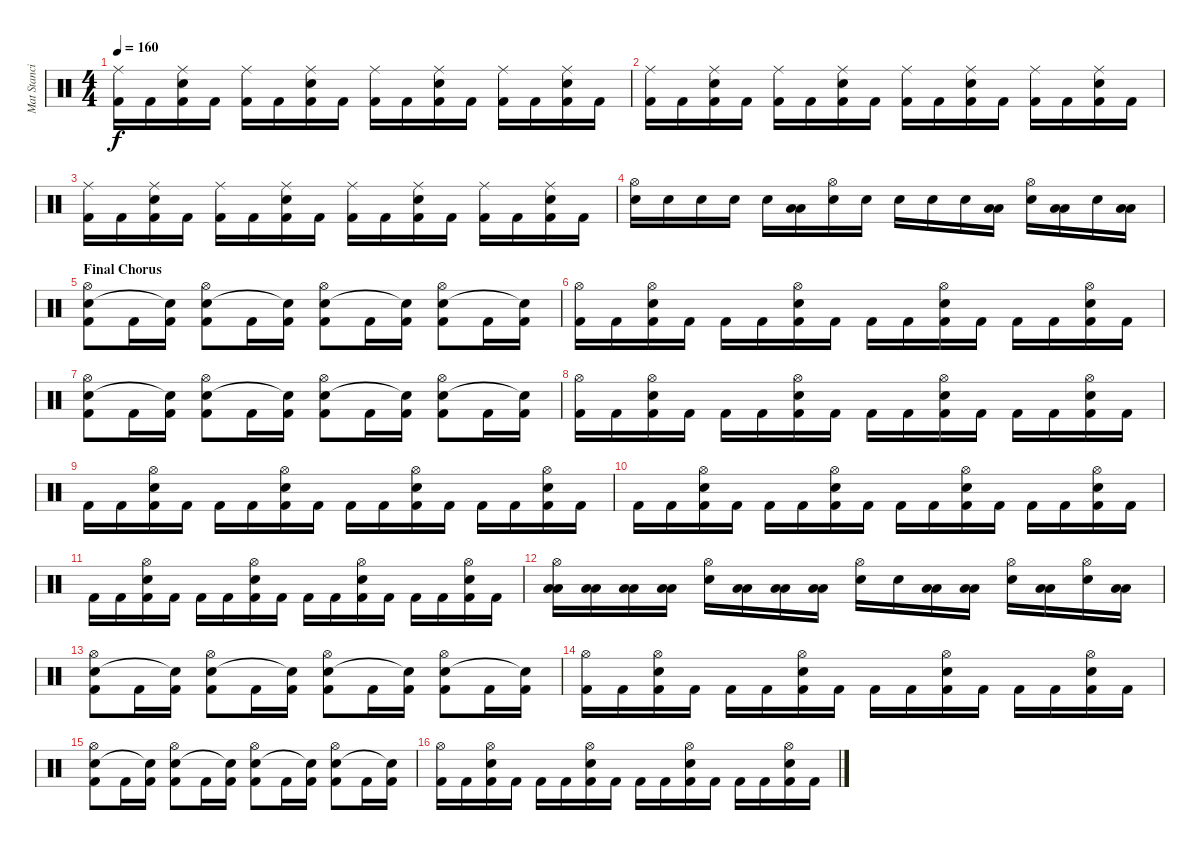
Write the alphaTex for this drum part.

\track ("Mat Stancioiu" "Mat Stanci") {instrument percussion}
\staff {score}
\articulation defaults
\ts (4 4)
\tempo 160
\clef neutral
\ks c
("Kick (hit) 2" "Ride (middle)").16{dy f} "Kick (hit) 2".16 ("Electric Snare (hit)" "Kick (hit) 2" "Ride (middle)").16 "Kick (hit) 2".16 ("Kick (hit) 2" "Ride (middle)").16 "Kick (hit) 2".16 ("Electric Snare (hit)" "Kick (hit) 2" "Ride (middle)").16 "Kick (hit) 2".16 ("Kick (hit) 2" "Ride (middle)").16 "Kick (hit) 2".16 ("Electric Snare (hit)" "Kick (hit) 2" "Ride (middle)").16 "Kick (hit) 2".16 ("Kick (hit) 2" "Ride (middle)").16 "Kick (hit) 2".16 ("Electric Snare (hit)" "Kick (hit) 2" "Ride (middle)").16 "Kick (hit) 2".16 |
("Kick (hit) 2" "Ride (middle)").16 "Kick (hit) 2".16 ("Electric Snare (hit)" "Kick (hit) 2" "Ride (middle)").16 "Kick (hit) 2".16 ("Kick (hit) 2" "Ride (middle)").16 "Kick (hit) 2".16 ("Electric Snare (hit)" "Kick (hit) 2" "Ride (middle)").16 "Kick (hit) 2".16 ("Kick (hit) 2" "Ride (middle)").16 "Kick (hit) 2".16 ("Electric Snare (hit)" "Kick (hit) 2" "Ride (middle)").16 "Kick (hit) 2".16 ("Kick (hit) 2" "Ride (middle)").16 "Kick (hit) 2".16 ("Electric Snare (hit)" "Kick (hit) 2" "Ride (middle)").16 "Kick (hit) 2".16 |
("Kick (hit) 2" "Ride (middle)").16 "Kick (hit) 2".16 ("Electric Snare (hit)" "Kick (hit) 2" "Ride (middle)").16 "Kick (hit) 2".16 ("Kick (hit) 2" "Ride (middle)").16 "Kick (hit) 2".16 ("Electric Snare (hit)" "Kick (hit) 2" "Ride (middle)").16 "Kick (hit) 2".16 ("Kick (hit) 2" "Ride (middle)").16 "Kick (hit) 2".16 ("Electric Snare (hit)" "Kick (hit) 2" "Ride (middle)").16 "Kick (hit) 2".16 ("Kick (hit) 2" "Ride (middle)").16 "Kick (hit) 2".16 ("Electric Snare (hit)" "Kick (hit) 2" "Ride (middle)").16 "Kick (hit) 2".16 |
("Electric Snare (hit)" "Hi-Hat (open)").16 "Electric Snare (hit)".16 "Electric Snare (hit)".16 "Electric Snare (hit)".16 "Electric Snare (hit)".16 ("Low Tom (hit)" "Low Tom (hit)").16 ("Electric Snare (hit)" "Hi-Hat (open)").16 "Electric Snare (hit)".16 "Electric Snare (hit)".16 "Electric Snare (hit)".16 "Electric Snare (hit)".16 ("Low Tom (hit)" "Low Tom (hit)").16 ("Electric Snare (hit)" "Hi-Hat (open)").16 ("Low Tom (hit)" "Low Tom (hit)").16 "Electric Snare (hit)".16 ("Low Tom (hit)" "Low Tom (hit)").16 |
\section ("" "Final Chorus")
("Kick (hit) 2" "Electric Snare (hit)" "Hi-Hat (open)").8 "Kick (hit) 2".16 ("Kick (hit) 2" "Snare (hit)"{t}).16 ("Kick (hit) 2" "Electric Snare (hit)" "Hi-Hat (open)").8 "Kick (hit) 2".16 ("Kick (hit) 2" "Snare (hit)"{t}).16 ("Kick (hit) 2" "Electric Snare (hit)" "Hi-Hat (open)").8 "Kick (hit) 2".16 ("Kick (hit) 2" "Snare (hit)"{t}).16 ("Kick (hit) 2" "Electric Snare (hit)" "Hi-Hat (open)").8 "Kick (hit) 2".16 ("Kick (hit) 2" "Snare (hit)"{t}).16 |
("Kick (hit) 2" "Hi-Hat (open)").16 "Kick (hit) 2".16 ("Electric Snare (hit)" "Kick (hit) 2" "Hi-Hat (open)").16 "Kick (hit) 2".16 "Kick (hit) 2".16 "Kick (hit) 2".16 ("Electric Snare (hit)" "Kick (hit) 2" "Hi-Hat (open)").16 "Kick (hit) 2".16 "Kick (hit) 2".16 "Kick (hit) 2".16 ("Electric Snare (hit)" "Kick (hit) 2" "Hi-Hat (open)").16 "Kick (hit) 2".16 "Kick (hit) 2".16 "Kick (hit) 2".16 ("Electric Snare (hit)" "Kick (hit) 2" "Hi-Hat (open)").16 "Kick (hit) 2".16 |
("Kick (hit) 2" "Electric Snare (hit)" "Hi-Hat (open)").8 "Kick (hit) 2".16 ("Kick (hit) 2" "Snare (hit)"{t}).16 ("Kick (hit) 2" "Electric Snare (hit)" "Hi-Hat (open)").8 "Kick (hit) 2".16 ("Kick (hit) 2" "Snare (hit)"{t}).16 ("Kick (hit) 2" "Electric Snare (hit)" "Hi-Hat (open)").8 "Kick (hit) 2".16 ("Kick (hit) 2" "Snare (hit)"{t}).16 ("Kick (hit) 2" "Electric Snare (hit)" "Hi-Hat (open)").8 "Kick (hit) 2".16 ("Kick (hit) 2" "Snare (hit)"{t}).16 |
("Kick (hit) 2" "Hi-Hat (open)").16 "Kick (hit) 2".16 ("Electric Snare (hit)" "Kick (hit) 2" "Hi-Hat (open)").16 "Kick (hit) 2".16 "Kick (hit) 2".16 "Kick (hit) 2".16 ("Electric Snare (hit)" "Kick (hit) 2" "Hi-Hat (open)").16 "Kick (hit) 2".16 "Kick (hit) 2".16 "Kick (hit) 2".16 ("Electric Snare (hit)" "Kick (hit) 2" "Hi-Hat (open)").16 "Kick (hit) 2".16 "Kick (hit) 2".16 "Kick (hit) 2".16 ("Electric Snare (hit)" "Kick (hit) 2" "Hi-Hat (open)").16 "Kick (hit) 2".16 |
"Kick (hit) 2".16 "Kick (hit) 2".16 ("Electric Snare (hit)" "Kick (hit) 2" "Hi-Hat (open)").16 "Kick (hit) 2".16 "Kick (hit) 2".16 "Kick (hit) 2".16 ("Electric Snare (hit)" "Kick (hit) 2" "Hi-Hat (open)").16 "Kick (hit) 2".16 "Kick (hit) 2".16 "Kick (hit) 2".16 ("Electric Snare (hit)" "Kick (hit) 2" "Hi-Hat (open)").16 "Kick (hit) 2".16 "Kick (hit) 2".16 "Kick (hit) 2".16 ("Electric Snare (hit)" "Kick (hit) 2" "Hi-Hat (open)").16 "Kick (hit) 2".16 |
"Kick (hit) 2".16 "Kick (hit) 2".16 ("Electric Snare (hit)" "Kick (hit) 2" "Hi-Hat (open)").16 "Kick (hit) 2".16 "Kick (hit) 2".16 "Kick (hit) 2".16 ("Electric Snare (hit)" "Kick (hit) 2" "Hi-Hat (open)").16 "Kick (hit) 2".16 "Kick (hit) 2".16 "Kick (hit) 2".16 ("Electric Snare (hit)" "Kick (hit) 2" "Hi-Hat (open)").16 "Kick (hit) 2".16 "Kick (hit) 2".16 "Kick (hit) 2".16 ("Electric Snare (hit)" "Kick (hit) 2" "Hi-Hat (open)").16 "Kick (hit) 2".16 |
"Kick (hit) 2".16 "Kick (hit) 2".16 ("Electric Snare (hit)" "Kick (hit) 2" "Hi-Hat (open)").16 "Kick (hit) 2".16 "Kick (hit) 2".16 "Kick (hit) 2".16 ("Electric Snare (hit)" "Kick (hit) 2" "Hi-Hat (open)").16 "Kick (hit) 2".16 "Kick (hit) 2".16 "Kick (hit) 2".16 ("Electric Snare (hit)" "Kick (hit) 2" "Hi-Hat (open)").16 "Kick (hit) 2".16 "Kick (hit) 2".16 "Kick (hit) 2".16 ("Electric Snare (hit)" "Kick (hit) 2" "Hi-Hat (open)").16 "Kick (hit) 2".16 |
("Low Tom (hit)" "Low Tom (hit)" "Hi-Hat (open)").16 ("Low Tom (hit)" "Low Tom (hit)").16 ("Low Tom (hit)" "Low Tom (hit)").16 ("Low Tom (hit)" "Low Tom (hit)").16 ("Electric Snare (hit)" "Hi-Hat (open)").16 ("Low Tom (hit)" "Low Tom (hit)").16 ("Low Tom (hit)" "Low Tom (hit)").16 ("Low Tom (hit)" "Low Tom (hit)").16 ("Electric Snare (hit)" "Hi-Hat (open)").16 "Electric Snare (hit)".16 ("Low Tom (hit)" "Low Tom (hit)").16 ("Low Tom (hit)" "Low Tom (hit)").16 ("Electric Snare (hit)" "Hi-Hat (open)").16 ("Low Tom (hit)" "Low Tom (hit)").16 ("Electric Snare (hit)" "Hi-Hat (open)").16 ("Low Tom (hit)" "Low Tom (hit)").16 |
("Kick (hit) 2" "Electric Snare (hit)" "Hi-Hat (open)").8 "Kick (hit) 2".16 ("Kick (hit) 2" "Snare (hit)"{t}).16 ("Kick (hit) 2" "Electric Snare (hit)" "Hi-Hat (open)").8 "Kick (hit) 2".16 ("Kick (hit) 2" "Snare (hit)"{t}).16 ("Kick (hit) 2" "Electric Snare (hit)" "Hi-Hat (open)").8 "Kick (hit) 2".16 ("Kick (hit) 2" "Snare (hit)"{t}).16 ("Kick (hit) 2" "Electric Snare (hit)" "Hi-Hat (open)").8 "Kick (hit) 2".16 ("Kick (hit) 2" "Snare (hit)"{t}).16 |
("Kick (hit) 2" "Hi-Hat (open)").16 "Kick (hit) 2".16 ("Electric Snare (hit)" "Kick (hit) 2" "Hi-Hat (open)").16 "Kick (hit) 2".16 "Kick (hit) 2".16 "Kick (hit) 2".16 ("Electric Snare (hit)" "Kick (hit) 2" "Hi-Hat (open)").16 "Kick (hit) 2".16 "Kick (hit) 2".16 "Kick (hit) 2".16 ("Electric Snare (hit)" "Kick (hit) 2" "Hi-Hat (open)").16 "Kick (hit) 2".16 "Kick (hit) 2".16 "Kick (hit) 2".16 ("Electric Snare (hit)" "Kick (hit) 2" "Hi-Hat (open)").16 "Kick (hit) 2".16 |
("Kick (hit) 2" "Electric Snare (hit)" "Hi-Hat (open)").8 "Kick (hit) 2".16 ("Kick (hit) 2" "Snare (hit)"{t}).16 ("Kick (hit) 2" "Electric Snare (hit)" "Hi-Hat (open)").8 "Kick (hit) 2".16 ("Kick (hit) 2" "Snare (hit)"{t}).16 ("Kick (hit) 2" "Electric Snare (hit)" "Hi-Hat (open)").8 "Kick (hit) 2".16 ("Kick (hit) 2" "Snare (hit)"{t}).16 ("Kick (hit) 2" "Electric Snare (hit)" "Hi-Hat (open)").8 "Kick (hit) 2".16 ("Kick (hit) 2" "Snare (hit)"{t}).16 |
("Kick (hit) 2" "Hi-Hat (open)").16 "Kick (hit) 2".16 ("Electric Snare (hit)" "Kick (hit) 2" "Hi-Hat (open)").16 "Kick (hit) 2".16 "Kick (hit) 2".16 "Kick (hit) 2".16 ("Electric Snare (hit)" "Kick (hit) 2" "Hi-Hat (open)").16 "Kick (hit) 2".16 "Kick (hit) 2".16 "Kick (hit) 2".16 ("Electric Snare (hit)" "Kick (hit) 2" "Hi-Hat (open)").16 "Kick (hit) 2".16 "Kick (hit) 2".16 "Kick (hit) 2".16 ("Electric Snare (hit)" "Kick (hit) 2" "Hi-Hat (open)").16 "Kick (hit) 2".16
